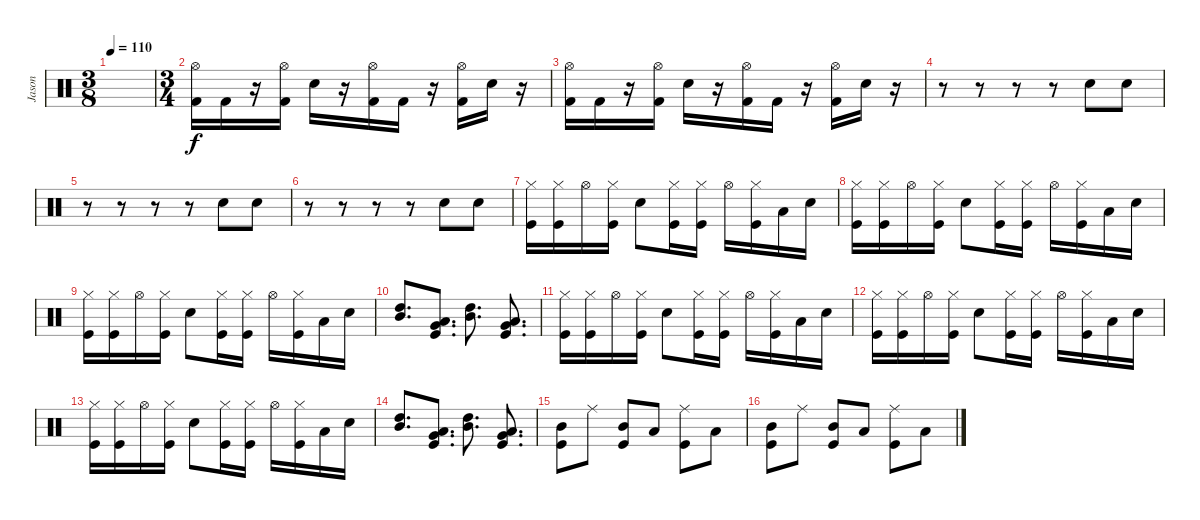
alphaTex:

\track ("Jason" "Jason") {instrument percussion}
\staff {score}
\articulation defaults
\ts (3 8)
\tempo 110
\clef neutral
\ks c
|
\ts (3 4)
("Hi-Hat (open)" "Kick (hit) 2").16 "Kick (hit) 2".16 r.16 ("Hi-Hat (open)" "Kick (hit) 2").16 "Snare (hit) 2".16 r.16 ("Hi-Hat (open)" "Kick (hit) 2").16 "Kick (hit) 2".16 r.16 ("Hi-Hat (open)" "Kick (hit) 2").16 "Snare (hit) 2".16 r.16 |
("Hi-Hat (open)" "Kick (hit) 2").16 "Kick (hit) 2".16 r.16 ("Hi-Hat (open)" "Kick (hit) 2").16 "Snare (hit) 2".16 r.16 ("Hi-Hat (open)" "Kick (hit) 2").16 "Kick (hit) 2".16 r.16 ("Hi-Hat (open)" "Kick (hit) 2").16 "Snare (hit) 2".16 r.16 |
r.8 r.8 r.8 r.8 "Snare (hit) 2".8 "Snare (hit) 2".8 |
r.8 r.8 r.8 r.8 "Snare (hit) 2".8 "Snare (hit) 2".8 |
r.8 r.8 r.8 r.8 "Snare (hit) 2".8 "Snare (hit) 2".8 |
("Hi-Hat (closed)" "Kick (hit)").16 ("Hi-Hat (closed)" "Kick (hit)").16 "Hi-Hat (open)".16 ("Hi-Hat (closed)" "Kick (hit)").16 "Snare (hit) 2".8 ("Hi-Hat (closed)" "Kick (hit)").16 ("Hi-Hat (closed)" "Kick (hit)").16 "Hi-Hat (open)".16 ("Hi-Hat (closed)" "Kick (hit)").16 "Low Floor Tom (hit)".16 "Snare (hit) 2".16 |
("Hi-Hat (closed)" "Kick (hit)").16 ("Hi-Hat (closed)" "Kick (hit)").16 "Hi-Hat (open)".16 ("Hi-Hat (closed)" "Kick (hit)").16 "Snare (hit) 2".8 ("Hi-Hat (closed)" "Kick (hit)").16 ("Hi-Hat (closed)" "Kick (hit)").16 "Hi-Hat (open)".16 ("Hi-Hat (closed)" "Kick (hit)").16 "Low Floor Tom (hit)".16 "Snare (hit) 2".16 |
("Hi-Hat (closed)" "Kick (hit)").16 ("Hi-Hat (closed)" "Kick (hit)").16 "Hi-Hat (open)".16 ("Hi-Hat (closed)" "Kick (hit)").16 "Snare (hit) 2".8 ("Hi-Hat (closed)" "Kick (hit)").16 ("Hi-Hat (closed)" "Kick (hit)").16 "Hi-Hat (open)".16 ("Hi-Hat (closed)" "Kick (hit)").16 "Low Floor Tom (hit)".16 "Snare (hit) 2".16 |
("High Tom (hit)" "Mid Tom (hit)").8{d} ("Very Low Tom (hit)" "Low Floor Tom (hit)" "Kick (hit)").8{d} ("High Tom (hit)" "Mid Tom (hit)").8{d} ("Very Low Tom (hit)" "Low Floor Tom (hit)" "Kick (hit)").8{d} |
("Hi-Hat (closed)" "Kick (hit)").16 ("Hi-Hat (closed)" "Kick (hit)").16 "Hi-Hat (open)".16 ("Hi-Hat (closed)" "Kick (hit)").16 "Snare (hit) 2".8 ("Hi-Hat (closed)" "Kick (hit)").16 ("Hi-Hat (closed)" "Kick (hit)").16 "Hi-Hat (open)".16 ("Hi-Hat (closed)" "Kick (hit)").16 "Low Floor Tom (hit)".16 "Snare (hit) 2".16 |
("Hi-Hat (closed)" "Kick (hit)").16 ("Hi-Hat (closed)" "Kick (hit)").16 "Hi-Hat (open)".16 ("Hi-Hat (closed)" "Kick (hit)").16 "Snare (hit) 2".8 ("Hi-Hat (closed)" "Kick (hit)").16 ("Hi-Hat (closed)" "Kick (hit)").16 "Hi-Hat (open)".16 ("Hi-Hat (closed)" "Kick (hit)").16 "Low Floor Tom (hit)".16 "Snare (hit) 2".16 |
("Hi-Hat (closed)" "Kick (hit)").16 ("Hi-Hat (closed)" "Kick (hit)").16 "Hi-Hat (open)".16 ("Hi-Hat (closed)" "Kick (hit)").16 "Snare (hit) 2".8 ("Hi-Hat (closed)" "Kick (hit)").16 ("Hi-Hat (closed)" "Kick (hit)").16 "Hi-Hat (open)".16 ("Hi-Hat (closed)" "Kick (hit)").16 "Low Floor Tom (hit)".16 "Snare (hit) 2".16 |
("High Tom (hit)" "Mid Tom (hit)").8{d} ("Very Low Tom (hit)" "Low Floor Tom (hit)" "Kick (hit)").8{d} ("High Tom (hit)" "Mid Tom (hit)").8{d} ("Very Low Tom (hit)" "Low Floor Tom (hit)" "Kick (hit)").8{d} |
("Mid Tom (hit)" "Kick (hit)").8 "Ride (middle)".8 ("Mid Tom (hit)" "Kick (hit)").8 "Low Floor Tom (hit)".8 ("Ride (middle)" "Kick (hit)").8 "Low Floor Tom (hit)".8 |
("Mid Tom (hit)" "Kick (hit)").8 "Ride (middle)".8 ("Mid Tom (hit)" "Kick (hit)").8 "Low Floor Tom (hit)".8 ("Ride (middle)" "Kick (hit)").8 "Low Floor Tom (hit)".8
